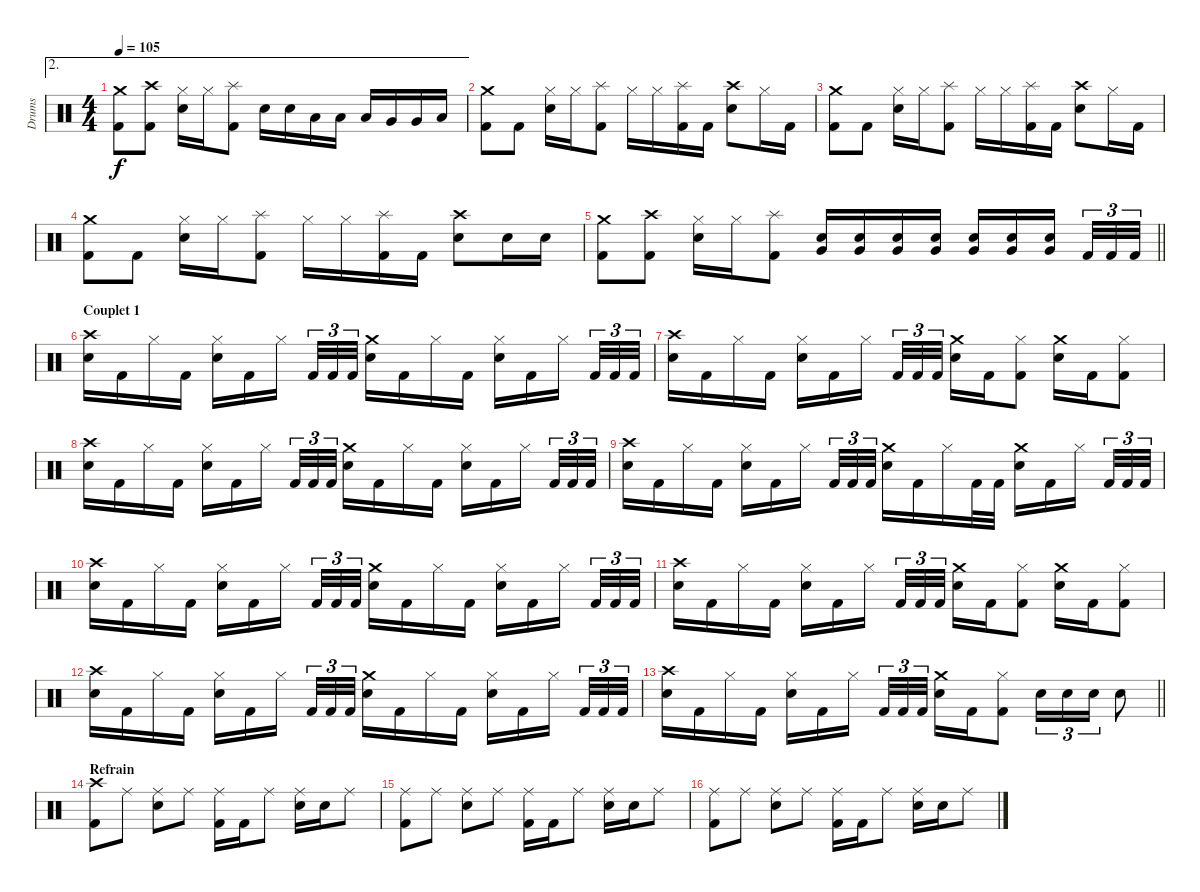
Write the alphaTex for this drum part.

\track ("Drums" "Drums") {instrument percussion}
\staff {score}
\articulation defaults
\ae 2
\ts (4 4)
\tempo 105
\clef neutral
\ks c
("Crash medium (hit)" "Kick (hit) 2").8{dy f} ("Crash high (hit)" "Kick (hit) 2").8 ("Hi-Hat (closed)" "Electric Snare (hit)").16 "Hi-Hat (closed)".16 ("Splash (hit)" "Kick (hit) 2").8 "Electric Snare (hit)".16 "Electric Snare (hit)".16 "Low Tom (hit)".16 "Low Tom (hit)".16 "Low Tom (hit)".16 "Very Low Tom (hit)".16 "Very Low Tom (hit)".16 "Low Floor Tom (hit)".16 |
("Crash medium (hit)" "Kick (hit) 2").8 "Kick (hit) 2".8 ("Hi-Hat (closed)" "Electric Snare (hit)").16 "Hi-Hat (closed)".16 ("Splash (hit)" "Kick (hit) 2").8 "Hi-Hat (closed)".16 "Hi-Hat (closed)".16 ("Splash (hit)" "Kick (hit) 2").16 "Kick (hit) 2".16 ("Crash high (hit)" "Electric Snare (hit)").8 "Hi-Hat (closed)".16 "Kick (hit) 2".16 |
("Crash medium (hit)" "Kick (hit) 2").8 "Kick (hit) 2".8 ("Hi-Hat (closed)" "Electric Snare (hit)").16 "Hi-Hat (closed)".16 ("Splash (hit)" "Kick (hit) 2").8 "Hi-Hat (closed)".16 "Hi-Hat (closed)".16 ("Splash (hit)" "Kick (hit) 2").16 "Kick (hit) 2".16 ("Crash high (hit)" "Electric Snare (hit)").8 "Hi-Hat (closed)".16 "Kick (hit) 2".16 |
("Crash medium (hit)" "Kick (hit) 2").8 "Kick (hit) 2".8 ("Hi-Hat (closed)" "Electric Snare (hit)").16 "Hi-Hat (closed)".16 ("Splash (hit)" "Kick (hit) 2").8 "Hi-Hat (closed)".16 "Hi-Hat (closed)".16 ("Splash (hit)" "Kick (hit) 2").16 "Kick (hit) 2".16 ("Crash high (hit)" "Electric Snare (hit)").8 "Electric Snare (hit)".16 "Electric Snare (hit)".16 |
\barLineRight lightlight
("Crash medium (hit)" "Kick (hit) 2").8 ("Crash high (hit)" "Kick (hit) 2").8 ("Hi-Hat (closed)" "Electric Snare (hit)").16 "Hi-Hat (closed)".16 ("Splash (hit)" "Kick (hit) 2").8 ("Very Low Tom (hit)" "Electric Snare (hit)").16 ("Very Low Tom (hit)" "Electric Snare (hit)").16 ("Very Low Tom (hit)" "Electric Snare (hit)").16 ("Very Low Tom (hit)" "Electric Snare (hit)").16 ("Very Low Tom (hit)" "Electric Snare (hit)").16 ("Very Low Tom (hit)" "Electric Snare (hit)").16 ("Very Low Tom (hit)" "Electric Snare (hit)").16{beam splitsecondary} "Kick (hit) 2".32{tu (3 2)} "Kick (hit) 2".32{tu (3 2)} "Kick (hit) 2".32{tu (3 2)} |
\section ("" "Couplet 1")
("Crash high (hit)" "Electric Snare (hit)").16 "Kick (hit) 2".16 "Hi-Hat (closed)".16 "Kick (hit) 2".16 ("Hi-Hat (closed)" "Electric Snare (hit)").16 "Kick (hit) 2".16 "Hi-Hat (closed)".16{beam splitsecondary} "Kick (hit) 2".32{tu (3 2)} "Kick (hit) 2".32{tu (3 2)} "Kick (hit) 2".32{tu (3 2)} ("Crash medium (hit)" "Electric Snare (hit)").16 "Kick (hit) 2".16 "Hi-Hat (closed)".16 "Kick (hit) 2".16 ("Hi-Hat (closed)" "Electric Snare (hit)").16 "Kick (hit) 2".16 "Hi-Hat (closed)".16{beam splitsecondary} "Kick (hit) 2".32{tu (3 2)} "Kick (hit) 2".32{tu (3 2)} "Kick (hit) 2".32{tu (3 2)} |
("Crash high (hit)" "Electric Snare (hit)").16 "Kick (hit) 2".16 "Hi-Hat (closed)".16 "Kick (hit) 2".16 ("Hi-Hat (closed)" "Electric Snare (hit)").16 "Kick (hit) 2".16 "Hi-Hat (closed)".16{beam splitsecondary} "Kick (hit) 2".32{tu (3 2)} "Kick (hit) 2".32{tu (3 2)} "Kick (hit) 2".32{tu (3 2)} ("Crash medium (hit)" "Electric Snare (hit)").16 "Kick (hit) 2".16 ("Hi-Hat (closed)" "Kick (hit) 2").8 ("Crash medium (hit)" "Electric Snare (hit)").16 "Kick (hit) 2".16 ("Hi-Hat (closed)" "Kick (hit) 2").8 |
("Crash high (hit)" "Electric Snare (hit)").16 "Kick (hit) 2".16 "Hi-Hat (closed)".16 "Kick (hit) 2".16 ("Hi-Hat (closed)" "Electric Snare (hit)").16 "Kick (hit) 2".16 "Hi-Hat (closed)".16{beam splitsecondary} "Kick (hit) 2".32{tu (3 2)} "Kick (hit) 2".32{tu (3 2)} "Kick (hit) 2".32{tu (3 2)} ("Crash medium (hit)" "Electric Snare (hit)").16 "Kick (hit) 2".16 "Hi-Hat (closed)".16 "Kick (hit) 2".16 ("Hi-Hat (closed)" "Electric Snare (hit)").16 "Kick (hit) 2".16 "Hi-Hat (closed)".16{beam splitsecondary} "Kick (hit) 2".32{tu (3 2)} "Kick (hit) 2".32{tu (3 2)} "Kick (hit) 2".32{tu (3 2)} |
("Crash high (hit)" "Electric Snare (hit)").16 "Kick (hit) 2".16 "Hi-Hat (closed)".16 "Kick (hit) 2".16 ("Hi-Hat (closed)" "Electric Snare (hit)").16 "Kick (hit) 2".16 "Hi-Hat (closed)".16{beam splitsecondary} "Kick (hit) 2".32{tu (3 2)} "Kick (hit) 2".32{tu (3 2)} "Kick (hit) 2".32{tu (3 2)} ("Crash medium (hit)" "Electric Snare (hit)").16 "Kick (hit) 2".16 "Hi-Hat (closed)".16 "Kick (hit) 2".32 "Kick (hit) 2".32 ("Crash medium (hit)" "Electric Snare (hit)").16 "Kick (hit) 2".16 "Hi-Hat (closed)".16{beam splitsecondary} "Kick (hit) 2".32{tu (3 2)} "Kick (hit) 2".32{tu (3 2)} "Kick (hit) 2".32{tu (3 2)} |
("Crash high (hit)" "Electric Snare (hit)").16 "Kick (hit) 2".16 "Hi-Hat (closed)".16 "Kick (hit) 2".16 ("Hi-Hat (closed)" "Electric Snare (hit)").16 "Kick (hit) 2".16 "Hi-Hat (closed)".16{beam splitsecondary} "Kick (hit) 2".32{tu (3 2)} "Kick (hit) 2".32{tu (3 2)} "Kick (hit) 2".32{tu (3 2)} ("Crash medium (hit)" "Electric Snare (hit)").16 "Kick (hit) 2".16 "Hi-Hat (closed)".16 "Kick (hit) 2".16 ("Hi-Hat (closed)" "Electric Snare (hit)").16 "Kick (hit) 2".16 "Hi-Hat (closed)".16{beam splitsecondary} "Kick (hit) 2".32{tu (3 2)} "Kick (hit) 2".32{tu (3 2)} "Kick (hit) 2".32{tu (3 2)} |
("Crash high (hit)" "Electric Snare (hit)").16 "Kick (hit) 2".16 "Hi-Hat (closed)".16 "Kick (hit) 2".16 ("Hi-Hat (closed)" "Electric Snare (hit)").16 "Kick (hit) 2".16 "Hi-Hat (closed)".16{beam splitsecondary} "Kick (hit) 2".32{tu (3 2)} "Kick (hit) 2".32{tu (3 2)} "Kick (hit) 2".32{tu (3 2)} ("Crash medium (hit)" "Electric Snare (hit)").16 "Kick (hit) 2".16 ("Hi-Hat (closed)" "Kick (hit) 2").8 ("Crash medium (hit)" "Electric Snare (hit)").16 "Kick (hit) 2".16 ("Hi-Hat (closed)" "Kick (hit) 2").8 |
("Crash high (hit)" "Electric Snare (hit)").16 "Kick (hit) 2".16 "Hi-Hat (closed)".16 "Kick (hit) 2".16 ("Hi-Hat (closed)" "Electric Snare (hit)").16 "Kick (hit) 2".16 "Hi-Hat (closed)".16{beam splitsecondary} "Kick (hit) 2".32{tu (3 2)} "Kick (hit) 2".32{tu (3 2)} "Kick (hit) 2".32{tu (3 2)} ("Crash medium (hit)" "Electric Snare (hit)").16 "Kick (hit) 2".16 "Hi-Hat (closed)".16 "Kick (hit) 2".16 ("Hi-Hat (closed)" "Electric Snare (hit)").16 "Kick (hit) 2".16 "Hi-Hat (closed)".16{beam splitsecondary} "Kick (hit) 2".32{tu (3 2)} "Kick (hit) 2".32{tu (3 2)} "Kick (hit) 2".32{tu (3 2)} |
\barLineRight lightlight
("Crash high (hit)" "Electric Snare (hit)").16 "Kick (hit) 2".16 "Hi-Hat (closed)".16 "Kick (hit) 2".16 ("Hi-Hat (closed)" "Electric Snare (hit)").16 "Kick (hit) 2".16 "Hi-Hat (closed)".16{beam splitsecondary} "Kick (hit) 2".32{tu (3 2)} "Kick (hit) 2".32{tu (3 2)} "Kick (hit) 2".32{tu (3 2)} ("Crash medium (hit)" "Electric Snare (hit)").16 "Kick (hit) 2".16 ("Hi-Hat (closed)" "Kick (hit) 2").8 "Electric Snare (hit)".16{tu (3 2)} "Electric Snare (hit)".16{tu (3 2)} "Electric Snare (hit)".16{tu (3 2)} "Electric Snare (hit)".8 |
\section ("" "Refrain")
("Crash high (hit)" "Kick (hit) 2").8 "Ride (middle)".8 ("Ride (middle)" "Electric Snare (hit)").8 "Ride (middle)".8 ("Ride (middle)" "Kick (hit) 2").16 "Kick (hit) 2".16 "Ride (middle)".8 ("Ride (middle)" "Electric Snare (hit)").16 "Electric Snare (hit)".16 "Ride (middle)".8 |
("Ride (middle)" "Kick (hit) 2").8 "Ride (middle)".8 ("Ride (middle)" "Electric Snare (hit)").8 "Ride (middle)".8 ("Ride (middle)" "Kick (hit) 2").16 "Kick (hit) 2".16 "Ride (middle)".8 ("Ride (middle)" "Electric Snare (hit)").16 "Electric Snare (hit)".16 "Ride (middle)".8 |
("Ride (middle)" "Kick (hit) 2").8 "Ride (middle)".8 ("Ride (middle)" "Electric Snare (hit)").8 "Ride (middle)".8 ("Ride (middle)" "Kick (hit) 2").16 "Kick (hit) 2".16 "Ride (middle)".8 ("Ride (middle)" "Electric Snare (hit)").16 "Electric Snare (hit)".16 "Ride (middle)".8
